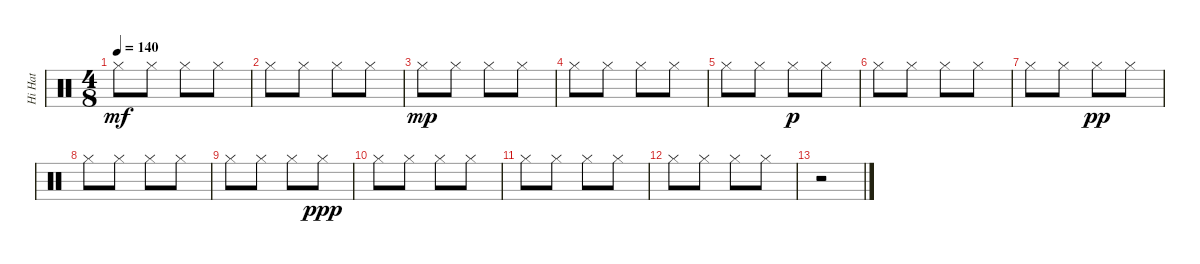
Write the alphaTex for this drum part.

\track ("Hi Hat" "Hi Hat") {instrument percussion}
\staff {score}
\articulation defaults
\ts (4 8)
\tempo 140
\clef neutral
\ks c "Hi-Hat (closed)".8{dy mf} "Hi-Hat (closed)".8 "Hi-Hat (closed)".8 "Hi-Hat (closed)".8
|
"Hi-Hat (closed)".8 "Hi-Hat (closed)".8 "Hi-Hat (closed)".8 "Hi-Hat (closed)".8 |
"Hi-Hat (closed)".8{dy mp} "Hi-Hat (closed)".8 "Hi-Hat (closed)".8 "Hi-Hat (closed)".8 |
"Hi-Hat (closed)".8 "Hi-Hat (closed)".8 "Hi-Hat (closed)".8 "Hi-Hat (closed)".8 |
"Hi-Hat (closed)".8 "Hi-Hat (closed)".8 "Hi-Hat (closed)".8{dy p} "Hi-Hat (closed)".8 |
"Hi-Hat (closed)".8 "Hi-Hat (closed)".8 "Hi-Hat (closed)".8 "Hi-Hat (closed)".8 |
"Hi-Hat (closed)".8 "Hi-Hat (closed)".8 "Hi-Hat (closed)".8{dy pp} "Hi-Hat (closed)".8 |
"Hi-Hat (closed)".8 "Hi-Hat (closed)".8 "Hi-Hat (closed)".8 "Hi-Hat (closed)".8 |
"Hi-Hat (closed)".8 "Hi-Hat (closed)".8 "Hi-Hat (closed)".8 "Hi-Hat (closed)".8{dy ppp} |
"Hi-Hat (closed)".8 "Hi-Hat (closed)".8 "Hi-Hat (closed)".8 "Hi-Hat (closed)".8 |
"Hi-Hat (closed)".8 "Hi-Hat (closed)".8 "Hi-Hat (closed)".8 "Hi-Hat (closed)".8 |
"Hi-Hat (closed)".8 "Hi-Hat (closed)".8 "Hi-Hat (closed)".8 "Hi-Hat (closed)".8 |
r.2
